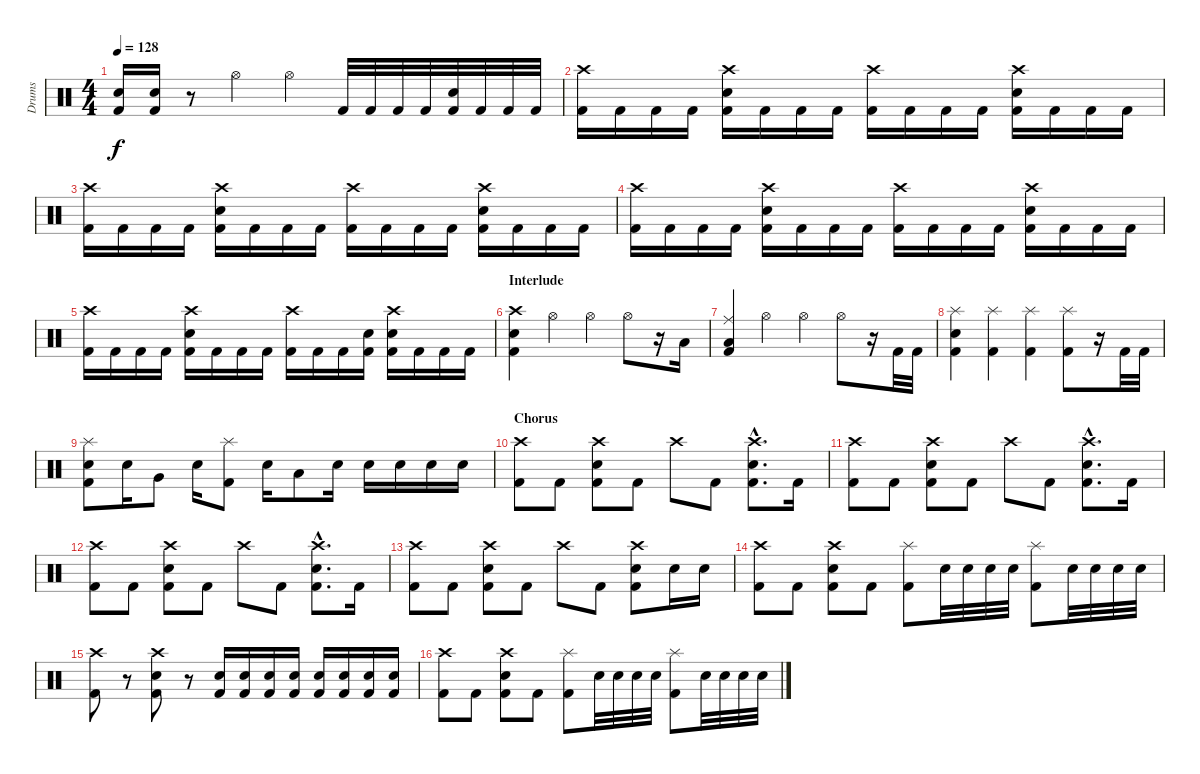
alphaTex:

\track ("Drums" "Drums") {instrument percussion}
\staff {score}
\articulation defaults
\ts (4 4)
\tempo 128
\clef neutral
\ks c
("Electric Snare (hit)" "Kick (hit) 2").16{dy f} ("Electric Snare (hit)" "Kick (hit) 2").16 r.8 "Hi-Hat (open)".4 "Hi-Hat (open)".4 "Kick (hit) 2".32 "Kick (hit) 2".32 "Kick (hit) 2".32 "Kick (hit) 2".32 ("Electric Snare (hit)" "Kick (hit) 2").32 "Kick (hit) 2".32 "Kick (hit) 2".32 "Kick (hit) 2".32 |
("Crash high (hit)" "Kick (hit) 2").16 "Kick (hit) 2".16 "Kick (hit) 2".16 "Kick (hit) 2".16 ("Crash high (hit)" "Electric Snare (hit)" "Kick (hit) 2").16 "Kick (hit) 2".16 "Kick (hit) 2".16 "Kick (hit) 2".16 ("Crash high (hit)" "Kick (hit) 2").16 "Kick (hit) 2".16 "Kick (hit) 2".16 "Kick (hit) 2".16 ("Crash high (hit)" "Electric Snare (hit)" "Kick (hit) 2").16 "Kick (hit) 2".16 "Kick (hit) 2".16 "Kick (hit) 2".16 |
("Crash high (hit)" "Kick (hit) 2").16 "Kick (hit) 2".16 "Kick (hit) 2".16 "Kick (hit) 2".16 ("Crash high (hit)" "Electric Snare (hit)" "Kick (hit) 2").16 "Kick (hit) 2".16 "Kick (hit) 2".16 "Kick (hit) 2".16 ("Crash high (hit)" "Kick (hit) 2").16 "Kick (hit) 2".16 "Kick (hit) 2".16 "Kick (hit) 2".16 ("Crash high (hit)" "Electric Snare (hit)" "Kick (hit) 2").16 "Kick (hit) 2".16 "Kick (hit) 2".16 "Kick (hit) 2".16 |
("Crash high (hit)" "Kick (hit) 2").16 "Kick (hit) 2".16 "Kick (hit) 2".16 "Kick (hit) 2".16 ("Crash high (hit)" "Electric Snare (hit)" "Kick (hit) 2").16 "Kick (hit) 2".16 "Kick (hit) 2".16 "Kick (hit) 2".16 ("Crash high (hit)" "Kick (hit) 2").16 "Kick (hit) 2".16 "Kick (hit) 2".16 "Kick (hit) 2".16 ("Crash high (hit)" "Electric Snare (hit)" "Kick (hit) 2").16 "Kick (hit) 2".16 "Kick (hit) 2".16 "Kick (hit) 2".16 |
("Crash high (hit)" "Kick (hit) 2").16 "Kick (hit) 2".16 "Kick (hit) 2".16 "Kick (hit) 2".16 ("Crash high (hit)" "Electric Snare (hit)" "Kick (hit) 2").16 "Kick (hit) 2".16 "Kick (hit) 2".16 "Kick (hit) 2".16 ("Crash high (hit)" "Kick (hit) 2").16 "Kick (hit) 2".16 "Kick (hit) 2".16 ("Electric Snare (hit)" "Kick (hit) 2").16 ("Crash high (hit)" "Electric Snare (hit)" "Kick (hit) 2").16 "Kick (hit) 2".16 "Kick (hit) 2".16 "Kick (hit) 2".16 |
\section ("" "Interlude")
("Crash high (hit)" "Electric Snare (hit)" "Kick (hit) 2").4 "Hi-Hat (open)".4 "Hi-Hat (open)".4 "Hi-Hat (open)".8 r.16 "Low Tom (hit)".16 |
("Ride (middle)" "Low Floor Tom (hit)" "Kick (hit) 2").4 "Hi-Hat (open)".4 "Hi-Hat (open)".4 "Hi-Hat (open)".8 r.16 "Kick (hit) 2".32 "Kick (hit) 2".32 |
("Splash (hit)" "Electric Snare (hit)" "Kick (hit) 2").4 ("Splash (hit)" "Kick (hit) 2").4 ("Splash (hit)" "Kick (hit) 2").4 ("Splash (hit)" "Kick (hit) 2").8 r.16 "Kick (hit) 2".32 "Kick (hit) 2".32 |
("Splash (hit)" "Electric Snare (hit)" "Kick (hit) 2").8 "Electric Snare (hit)".16 "Very Low Tom (hit)".8 "Electric Snare (hit)".16 ("Splash (hit)" "Kick (hit) 2").8 "Electric Snare (hit)".16 "Low Tom (hit)".8 "Electric Snare (hit)".16 "Electric Snare (hit)".16 "Electric Snare (hit)".16 "Electric Snare (hit)".16 "Electric Snare (hit)".16 |
\section ("" "Chorus")
("Crash high (hit)" "Kick (hit) 2").8 "Kick (hit) 2".8 ("Crash high (hit)" "Electric Snare (hit)" "Kick (hit) 2").8 "Kick (hit) 2".8 "Crash high (hit)".8 "Kick (hit) 2".8 ("Crash high (hit)"{hac} "Electric Snare (hit)"{hac} "Kick (hit) 2"{hac}).8{d} "Kick (hit) 2".16 |
("Crash high (hit)" "Kick (hit) 2").8 "Kick (hit) 2".8 ("Crash high (hit)" "Electric Snare (hit)" "Kick (hit) 2").8 "Kick (hit) 2".8 "Crash high (hit)".8 "Kick (hit) 2".8 ("Crash high (hit)"{hac} "Electric Snare (hit)"{hac} "Kick (hit) 2"{hac}).8{d} "Kick (hit) 2".16 |
("Crash high (hit)" "Kick (hit) 2").8 "Kick (hit) 2".8 ("Crash high (hit)" "Electric Snare (hit)" "Kick (hit) 2").8 "Kick (hit) 2".8 "Crash high (hit)".8 "Kick (hit) 2".8 ("Crash high (hit)"{hac} "Electric Snare (hit)"{hac} "Kick (hit) 2"{hac}).8{d} "Kick (hit) 2".16 |
("Crash high (hit)" "Kick (hit) 2").8 "Kick (hit) 2".8 ("Crash high (hit)" "Electric Snare (hit)" "Kick (hit) 2").8 "Kick (hit) 2".8 "Crash high (hit)".8 "Kick (hit) 2".8 ("Crash high (hit)" "Electric Snare (hit)" "Kick (hit) 2").8 "Electric Snare (hit)".16 "Electric Snare (hit)".16 |
("Crash high (hit)" "Kick (hit) 2").8 "Kick (hit) 2".8 ("Crash high (hit)" "Electric Snare (hit)" "Kick (hit) 2").8 "Kick (hit) 2".8 ("Splash (hit)" "Kick (hit) 2").8 "Electric Snare (hit)".32 "Electric Snare (hit)".32 "Electric Snare (hit)".32 "Electric Snare (hit)".32 ("Splash (hit)" "Kick (hit) 2").8 "Electric Snare (hit)".32 "Electric Snare (hit)".32 "Electric Snare (hit)".32 "Electric Snare (hit)".32 |
("Crash high (hit)" "Kick (hit) 2").8 r.8 ("Crash high (hit)" "Electric Snare (hit)" "Kick (hit) 2").8 r.8 ("Electric Snare (hit)" "Kick (hit) 2").16 ("Electric Snare (hit)" "Kick (hit) 2").16 ("Electric Snare (hit)" "Kick (hit) 2").16 ("Electric Snare (hit)" "Kick (hit) 2").16 ("Electric Snare (hit)" "Kick (hit) 2").16 ("Electric Snare (hit)" "Kick (hit) 2").16 ("Electric Snare (hit)" "Kick (hit) 2").16 ("Electric Snare (hit)" "Kick (hit) 2").16 |
("Crash high (hit)" "Kick (hit) 2").8 "Kick (hit) 2".8 ("Crash high (hit)" "Electric Snare (hit)" "Kick (hit) 2").8 "Kick (hit) 2".8 ("Splash (hit)" "Kick (hit) 2").8 "Electric Snare (hit)".32 "Electric Snare (hit)".32 "Electric Snare (hit)".32 "Electric Snare (hit)".32 ("Splash (hit)" "Kick (hit) 2").8 "Electric Snare (hit)".32 "Electric Snare (hit)".32 "Electric Snare (hit)".32 "Electric Snare (hit)".32
